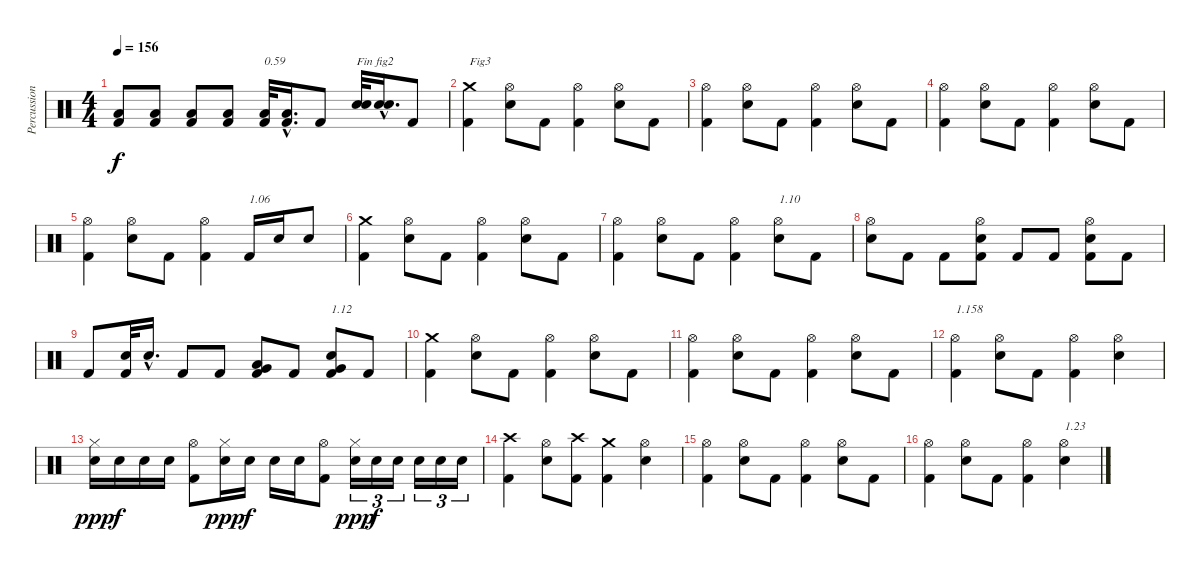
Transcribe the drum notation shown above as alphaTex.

\track ("Percussions" "Percussion") {instrument percussion}
\staff {score}
\articulation defaults
\ts (4 4)
\tempo 156
\clef neutral
\ks c
("Kick (hit) 2" "Low Floor Tom (hit)").8{dy f} ("Kick (hit) 2" "Low Floor Tom (hit)").8 ("Kick (hit) 2" "Low Floor Tom (hit)").8 ("Kick (hit) 2" "Low Floor Tom (hit)").8 ("Kick (hit) 2" "Low Floor Tom (hit)").32{txt "0.59"} ("Kick (hit) 2"{hac} "Low Floor Tom (hit)"{hac}).16{d} "Kick (hit) 2".8 ("Electric Snare (hit)" "Electric Snare (hit)").32{txt "Fin fig2"} ("Electric Snare (hit)"{hac} "Electric Snare (hit)"{hac}).16{d} "Kick (hit) 2".8 |
("Kick (hit) 2" "Crash medium (hit)").4{txt "Fig3"} ("Electric Snare (hit)" "Hi-Hat (open)").8 "Kick (hit) 2".8 ("Kick (hit) 2" "Hi-Hat (open)").4 ("Electric Snare (hit)" "Hi-Hat (open)").8 "Kick (hit) 2".8 |
("Kick (hit) 2" "Hi-Hat (open)").4 ("Electric Snare (hit)" "Hi-Hat (open)").8 "Kick (hit) 2".8 ("Kick (hit) 2" "Hi-Hat (open)").4 ("Electric Snare (hit)" "Hi-Hat (open)").8 "Kick (hit) 2".8 |
("Kick (hit) 2" "Hi-Hat (open)").4 ("Electric Snare (hit)" "Hi-Hat (open)").8 "Kick (hit) 2".8 ("Kick (hit) 2" "Hi-Hat (open)").4 ("Electric Snare (hit)" "Hi-Hat (open)").8 "Kick (hit) 2".8 |
("Kick (hit) 2" "Hi-Hat (open)").4 ("Electric Snare (hit)" "Hi-Hat (open)").8 "Kick (hit) 2".8 ("Kick (hit) 2" "Hi-Hat (open)").4 "Kick (hit) 2".16{txt "1.06"} "Electric Snare (hit)".16 "Electric Snare (hit)".8 |
("Kick (hit) 2" "Crash medium (hit)").4 ("Electric Snare (hit)" "Hi-Hat (open)").8 "Kick (hit) 2".8 ("Kick (hit) 2" "Hi-Hat (open)").4 ("Electric Snare (hit)" "Hi-Hat (open)").8 "Kick (hit) 2".8 |
("Kick (hit) 2" "Hi-Hat (open)").4 ("Electric Snare (hit)" "Hi-Hat (open)").8 "Kick (hit) 2".8 ("Kick (hit) 2" "Hi-Hat (open)").4 ("Electric Snare (hit)" "Hi-Hat (open)").8{txt "1.10"} "Kick (hit) 2".8 |
("Electric Snare (hit)" "Hi-Hat (open)").8 "Kick (hit) 2".8 "Kick (hit) 2".8 ("Kick (hit) 2" "Electric Snare (hit)" "Hi-Hat (open)").8 "Kick (hit) 2".8 "Kick (hit) 2".8 ("Kick (hit) 2" "Electric Snare (hit)" "Hi-Hat (open)").8 "Kick (hit) 2".8 |
"Kick (hit) 2".8 ("Kick (hit) 2" "Electric Snare (hit)").32 "Electric Snare (hit)"{hac}.16{d} "Kick (hit) 2".8 "Kick (hit) 2".8 ("Kick (hit) 2" "Low Floor Tom (hit)" "Very Low Tom (hit)").8 "Kick (hit) 2".8 ("Kick (hit) 2" "Electric Snare (hit)" "Very Low Tom (hit)").8{txt "1.12"} "Kick (hit) 2".8 |
("Kick (hit) 2" "Crash medium (hit)").4 ("Electric Snare (hit)" "Hi-Hat (open)").8 "Kick (hit) 2".8 ("Kick (hit) 2" "Hi-Hat (open)").4 ("Electric Snare (hit)" "Hi-Hat (open)").8 "Kick (hit) 2".8 |
("Kick (hit) 2" "Hi-Hat (open)").4 ("Electric Snare (hit)" "Hi-Hat (open)").8 "Kick (hit) 2".8 ("Kick (hit) 2" "Hi-Hat (open)").4 ("Electric Snare (hit)" "Hi-Hat (open)").8 "Kick (hit) 2".8 |
("Kick (hit) 2" "Hi-Hat (open)").4{txt "1.158"} ("Electric Snare (hit)" "Hi-Hat (open)").8 "Kick (hit) 2".8 ("Kick (hit) 2" "Hi-Hat (open)").4 ("Electric Snare (hit)" "Hi-Hat (open)").4 |
("Electric Snare (hit)" "Hi-Hat (closed)").16{dy ppp} "Electric Snare (hit)".16{dy f} "Electric Snare (hit)".16 "Electric Snare (hit)".16 ("Kick (hit) 2" "Hi-Hat (open)").8 ("Electric Snare (hit)" "Hi-Hat (closed)").16{dy ppp} "Electric Snare (hit)".16{dy f} "Electric Snare (hit)".16 "Electric Snare (hit)".16 ("Kick (hit) 2" "Hi-Hat (open)").8 ("Electric Snare (hit)" "Hi-Hat (closed)").16{tu (3 2) dy ppp} "Electric Snare (hit)".16{tu (3 2) dy f} "Electric Snare (hit)".16{tu (3 2)} "Electric Snare (hit)".16{tu (3 2)} "Electric Snare (hit)".16{tu (3 2)} "Electric Snare (hit)".16{tu (3 2)} |
("Kick (hit) 2" "Crash high (hit)").4 ("Electric Snare (hit)" "Hi-Hat (open)").8 ("Kick (hit) 2" "Crash high (hit)").8 ("Kick (hit) 2" "Crash medium (hit)").4 ("Electric Snare (hit)" "Hi-Hat (open)").4 |
("Kick (hit) 2" "Hi-Hat (open)").4 ("Electric Snare (hit)" "Hi-Hat (open)").8 "Kick (hit) 2".8 ("Kick (hit) 2" "Hi-Hat (open)").4 ("Electric Snare (hit)" "Hi-Hat (open)").8 "Kick (hit) 2".8 |
("Kick (hit) 2" "Hi-Hat (open)").4 ("Electric Snare (hit)" "Hi-Hat (open)").8 "Kick (hit) 2".8 ("Kick (hit) 2" "Hi-Hat (open)").4 ("Electric Snare (hit)" "Hi-Hat (open)").4{txt "1.23"}
